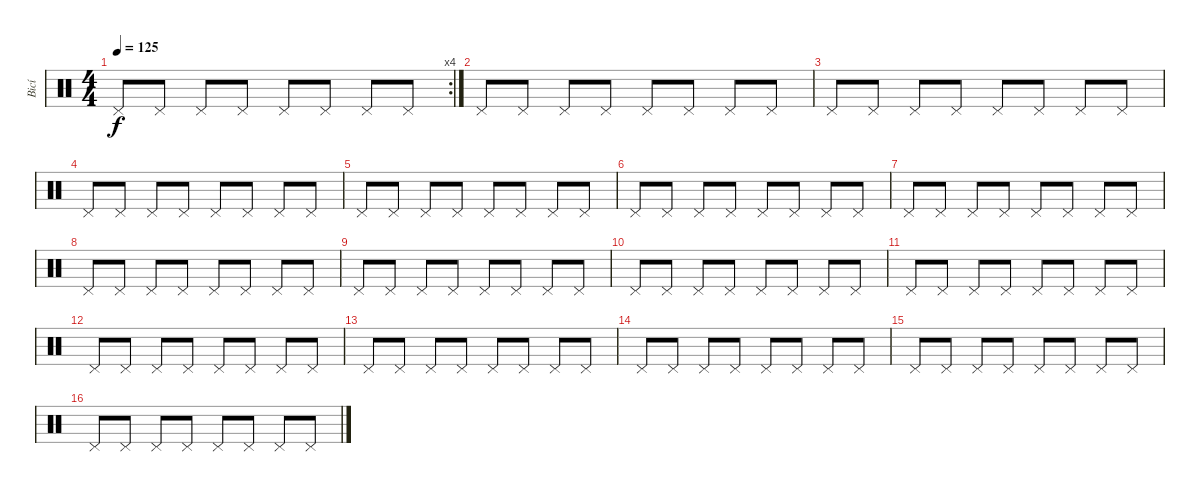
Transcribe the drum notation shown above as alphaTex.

\track ("Bicí" "Bicí") {instrument percussion}
\staff {score}
\articulation defaults
\rc 4
\ts (4 4)
\tempo 125
\clef neutral
\ks c "Pedal Hi-Hat (hit)".8{dy f} "Pedal Hi-Hat (hit)".8 "Pedal Hi-Hat (hit)".8 "Pedal Hi-Hat (hit)".8 "Pedal Hi-Hat (hit)".8 "Pedal Hi-Hat (hit)".8 "Pedal Hi-Hat (hit)".8 "Pedal Hi-Hat (hit)".8
|
"Pedal Hi-Hat (hit)".8 "Pedal Hi-Hat (hit)".8 "Pedal Hi-Hat (hit)".8 "Pedal Hi-Hat (hit)".8 "Pedal Hi-Hat (hit)".8 "Pedal Hi-Hat (hit)".8 "Pedal Hi-Hat (hit)".8 "Pedal Hi-Hat (hit)".8 |
"Pedal Hi-Hat (hit)".8 "Pedal Hi-Hat (hit)".8 "Pedal Hi-Hat (hit)".8 "Pedal Hi-Hat (hit)".8 "Pedal Hi-Hat (hit)".8 "Pedal Hi-Hat (hit)".8 "Pedal Hi-Hat (hit)".8 "Pedal Hi-Hat (hit)".8 |
"Pedal Hi-Hat (hit)".8 "Pedal Hi-Hat (hit)".8 "Pedal Hi-Hat (hit)".8 "Pedal Hi-Hat (hit)".8 "Pedal Hi-Hat (hit)".8 "Pedal Hi-Hat (hit)".8 "Pedal Hi-Hat (hit)".8 "Pedal Hi-Hat (hit)".8 |
"Pedal Hi-Hat (hit)".8 "Pedal Hi-Hat (hit)".8 "Pedal Hi-Hat (hit)".8 "Pedal Hi-Hat (hit)".8 "Pedal Hi-Hat (hit)".8 "Pedal Hi-Hat (hit)".8 "Pedal Hi-Hat (hit)".8 "Pedal Hi-Hat (hit)".8 |
"Pedal Hi-Hat (hit)".8 "Pedal Hi-Hat (hit)".8 "Pedal Hi-Hat (hit)".8 "Pedal Hi-Hat (hit)".8 "Pedal Hi-Hat (hit)".8 "Pedal Hi-Hat (hit)".8 "Pedal Hi-Hat (hit)".8 "Pedal Hi-Hat (hit)".8 |
"Pedal Hi-Hat (hit)".8 "Pedal Hi-Hat (hit)".8 "Pedal Hi-Hat (hit)".8 "Pedal Hi-Hat (hit)".8 "Pedal Hi-Hat (hit)".8 "Pedal Hi-Hat (hit)".8 "Pedal Hi-Hat (hit)".8 "Pedal Hi-Hat (hit)".8 |
"Pedal Hi-Hat (hit)".8 "Pedal Hi-Hat (hit)".8 "Pedal Hi-Hat (hit)".8 "Pedal Hi-Hat (hit)".8 "Pedal Hi-Hat (hit)".8 "Pedal Hi-Hat (hit)".8 "Pedal Hi-Hat (hit)".8 "Pedal Hi-Hat (hit)".8 |
"Pedal Hi-Hat (hit)".8 "Pedal Hi-Hat (hit)".8 "Pedal Hi-Hat (hit)".8 "Pedal Hi-Hat (hit)".8 "Pedal Hi-Hat (hit)".8 "Pedal Hi-Hat (hit)".8 "Pedal Hi-Hat (hit)".8 "Pedal Hi-Hat (hit)".8 |
"Pedal Hi-Hat (hit)".8 "Pedal Hi-Hat (hit)".8 "Pedal Hi-Hat (hit)".8 "Pedal Hi-Hat (hit)".8 "Pedal Hi-Hat (hit)".8 "Pedal Hi-Hat (hit)".8 "Pedal Hi-Hat (hit)".8 "Pedal Hi-Hat (hit)".8 |
"Pedal Hi-Hat (hit)".8 "Pedal Hi-Hat (hit)".8 "Pedal Hi-Hat (hit)".8 "Pedal Hi-Hat (hit)".8 "Pedal Hi-Hat (hit)".8 "Pedal Hi-Hat (hit)".8 "Pedal Hi-Hat (hit)".8 "Pedal Hi-Hat (hit)".8 |
"Pedal Hi-Hat (hit)".8 "Pedal Hi-Hat (hit)".8 "Pedal Hi-Hat (hit)".8 "Pedal Hi-Hat (hit)".8 "Pedal Hi-Hat (hit)".8 "Pedal Hi-Hat (hit)".8 "Pedal Hi-Hat (hit)".8 "Pedal Hi-Hat (hit)".8 |
"Pedal Hi-Hat (hit)".8 "Pedal Hi-Hat (hit)".8 "Pedal Hi-Hat (hit)".8 "Pedal Hi-Hat (hit)".8 "Pedal Hi-Hat (hit)".8 "Pedal Hi-Hat (hit)".8 "Pedal Hi-Hat (hit)".8 "Pedal Hi-Hat (hit)".8 |
"Pedal Hi-Hat (hit)".8 "Pedal Hi-Hat (hit)".8 "Pedal Hi-Hat (hit)".8 "Pedal Hi-Hat (hit)".8 "Pedal Hi-Hat (hit)".8 "Pedal Hi-Hat (hit)".8 "Pedal Hi-Hat (hit)".8 "Pedal Hi-Hat (hit)".8 |
"Pedal Hi-Hat (hit)".8 "Pedal Hi-Hat (hit)".8 "Pedal Hi-Hat (hit)".8 "Pedal Hi-Hat (hit)".8 "Pedal Hi-Hat (hit)".8 "Pedal Hi-Hat (hit)".8 "Pedal Hi-Hat (hit)".8 "Pedal Hi-Hat (hit)".8 |
"Pedal Hi-Hat (hit)".8 "Pedal Hi-Hat (hit)".8 "Pedal Hi-Hat (hit)".8 "Pedal Hi-Hat (hit)".8 "Pedal Hi-Hat (hit)".8 "Pedal Hi-Hat (hit)".8 "Pedal Hi-Hat (hit)".8 "Pedal Hi-Hat (hit)".8
